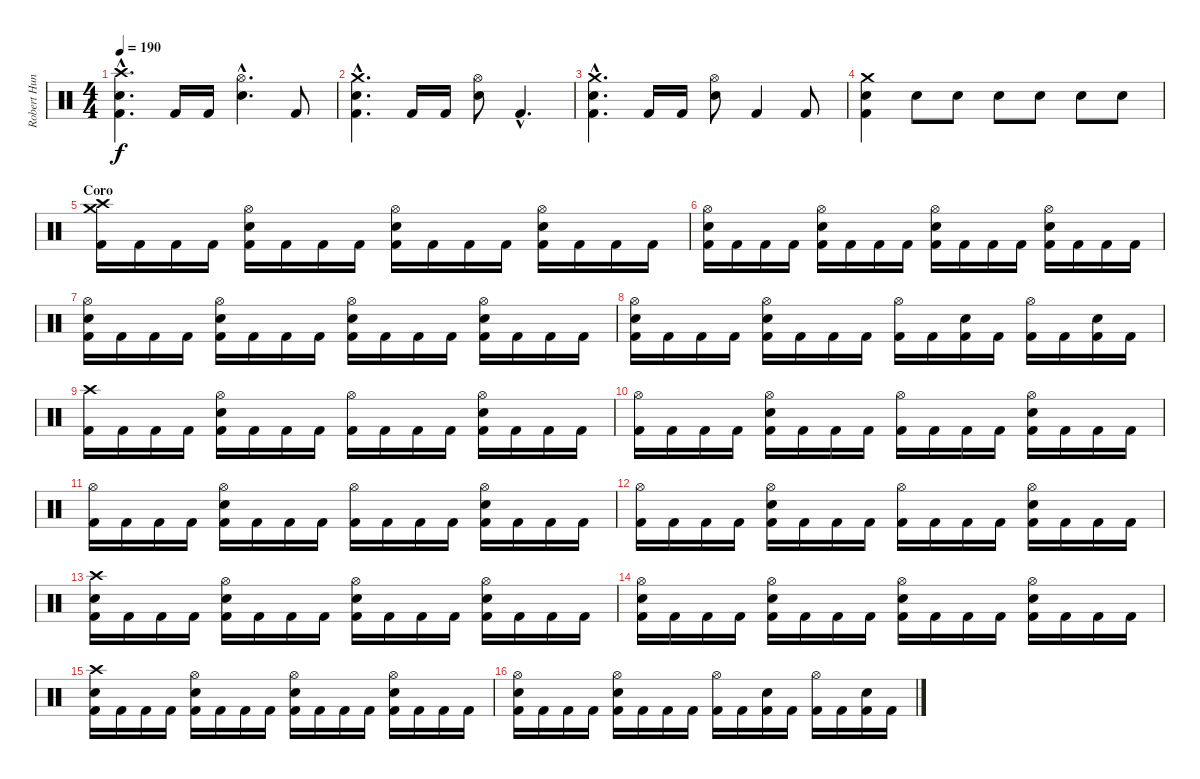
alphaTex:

\track ("Robert Hunecke" "Robert Hun") {instrument percussion}
\staff {score}
\articulation defaults
\ts (4 4)
\tempo 190
\clef neutral
\ks c
("Kick (hit) 2"{hac} "Electric Snare (hit)"{hac} "Crash high (hit)"{hac}).4{d dy f} "Kick (hit) 2".16 "Kick (hit) 2".16 ("Electric Snare (hit)"{hac} "Hi-Hat (open)"{hac}).4{d} "Kick (hit) 2".8 |
("Kick (hit) 2"{hac} "Electric Snare (hit)"{hac} "Crash medium (hit)"{hac}).4{d} "Kick (hit) 2".16 "Kick (hit) 2".16 ("Electric Snare (hit)" "Hi-Hat (open)").8 "Kick (hit) 2"{hac}.4{d} |
("Kick (hit) 2"{hac} "Electric Snare (hit)"{hac} "Crash medium (hit)"{hac}).4{d} "Kick (hit) 2".16 "Kick (hit) 2".16 ("Electric Snare (hit)" "Hi-Hat (open)").8 "Kick (hit) 2".4 "Kick (hit) 2".8 |
("Kick (hit) 2" "Electric Snare (hit)" "Crash medium (hit)").4 "Electric Snare (hit)".8 "Electric Snare (hit)".8 "Electric Snare (hit)".8 "Electric Snare (hit)".8 "Electric Snare (hit)".8 "Electric Snare (hit)".8 |
\section ("" "Coro")
("Kick (hit) 2" "Crash high (hit)" "Crash medium (hit)").16 "Kick (hit) 2".16 "Kick (hit) 2".16 "Kick (hit) 2".16 ("Kick (hit) 2" "Electric Snare (hit)" "Hi-Hat (open)").16 "Kick (hit) 2".16 "Kick (hit) 2".16 "Kick (hit) 2".16 ("Kick (hit) 2" "Electric Snare (hit)" "Hi-Hat (open)").16 "Kick (hit) 2".16 "Kick (hit) 2".16 "Kick (hit) 2".16 ("Kick (hit) 2" "Electric Snare (hit)" "Hi-Hat (open)").16 "Kick (hit) 2".16 "Kick (hit) 2".16 "Kick (hit) 2".16 |
("Kick (hit) 2" "Electric Snare (hit)" "Hi-Hat (open)").16 "Kick (hit) 2".16 "Kick (hit) 2".16 "Kick (hit) 2".16 ("Kick (hit) 2" "Electric Snare (hit)" "Hi-Hat (open)").16 "Kick (hit) 2".16 "Kick (hit) 2".16 "Kick (hit) 2".16 ("Kick (hit) 2" "Electric Snare (hit)" "Hi-Hat (open)").16 "Kick (hit) 2".16 "Kick (hit) 2".16 "Kick (hit) 2".16 ("Kick (hit) 2" "Electric Snare (hit)" "Hi-Hat (open)").16 "Kick (hit) 2".16 "Kick (hit) 2".16 "Kick (hit) 2".16 |
("Kick (hit) 2" "Electric Snare (hit)" "Hi-Hat (open)").16 "Kick (hit) 2".16 "Kick (hit) 2".16 "Kick (hit) 2".16 ("Kick (hit) 2" "Electric Snare (hit)" "Hi-Hat (open)").16 "Kick (hit) 2".16 "Kick (hit) 2".16 "Kick (hit) 2".16 ("Kick (hit) 2" "Electric Snare (hit)" "Hi-Hat (open)").16 "Kick (hit) 2".16 "Kick (hit) 2".16 "Kick (hit) 2".16 ("Kick (hit) 2" "Electric Snare (hit)" "Hi-Hat (open)").16 "Kick (hit) 2".16 "Kick (hit) 2".16 "Kick (hit) 2".16 |
("Kick (hit) 2" "Electric Snare (hit)" "Hi-Hat (open)").16 "Kick (hit) 2".16 "Kick (hit) 2".16 "Kick (hit) 2".16 ("Kick (hit) 2" "Electric Snare (hit)" "Hi-Hat (open)").16 "Kick (hit) 2".16 "Kick (hit) 2".16 "Kick (hit) 2".16 ("Kick (hit) 2" "Hi-Hat (open)").16 "Kick (hit) 2".16 ("Kick (hit) 2" "Electric Snare (hit)").16 "Kick (hit) 2".16 ("Kick (hit) 2" "Hi-Hat (open)").16 "Kick (hit) 2".16 ("Kick (hit) 2" "Electric Snare (hit)").16 "Kick (hit) 2".16 |
("Kick (hit) 2" "Crash high (hit)").16 "Kick (hit) 2".16 "Kick (hit) 2".16 "Kick (hit) 2".16 ("Kick (hit) 2" "Electric Snare (hit)" "Hi-Hat (open)").16 "Kick (hit) 2".16 "Kick (hit) 2".16 "Kick (hit) 2".16 ("Kick (hit) 2" "Hi-Hat (open)").16 "Kick (hit) 2".16 "Kick (hit) 2".16 "Kick (hit) 2".16 ("Kick (hit) 2" "Electric Snare (hit)" "Hi-Hat (open)").16 "Kick (hit) 2".16 "Kick (hit) 2".16 "Kick (hit) 2".16 |
("Kick (hit) 2" "Hi-Hat (open)").16 "Kick (hit) 2".16 "Kick (hit) 2".16 "Kick (hit) 2".16 ("Kick (hit) 2" "Electric Snare (hit)" "Hi-Hat (open)").16 "Kick (hit) 2".16 "Kick (hit) 2".16 "Kick (hit) 2".16 ("Kick (hit) 2" "Hi-Hat (open)").16 "Kick (hit) 2".16 "Kick (hit) 2".16 "Kick (hit) 2".16 ("Kick (hit) 2" "Electric Snare (hit)" "Hi-Hat (open)").16 "Kick (hit) 2".16 "Kick (hit) 2".16 "Kick (hit) 2".16 |
("Kick (hit) 2" "Hi-Hat (open)").16 "Kick (hit) 2".16 "Kick (hit) 2".16 "Kick (hit) 2".16 ("Kick (hit) 2" "Electric Snare (hit)" "Hi-Hat (open)").16 "Kick (hit) 2".16 "Kick (hit) 2".16 "Kick (hit) 2".16 ("Kick (hit) 2" "Hi-Hat (open)").16 "Kick (hit) 2".16 "Kick (hit) 2".16 "Kick (hit) 2".16 ("Kick (hit) 2" "Electric Snare (hit)" "Hi-Hat (open)").16 "Kick (hit) 2".16 "Kick (hit) 2".16 "Kick (hit) 2".16 |
("Kick (hit) 2" "Hi-Hat (open)").16 "Kick (hit) 2".16 "Kick (hit) 2".16 "Kick (hit) 2".16 ("Kick (hit) 2" "Electric Snare (hit)" "Hi-Hat (open)").16 "Kick (hit) 2".16 "Kick (hit) 2".16 "Kick (hit) 2".16 ("Kick (hit) 2" "Hi-Hat (open)").16 "Kick (hit) 2".16 "Kick (hit) 2".16 "Kick (hit) 2".16 ("Kick (hit) 2" "Electric Snare (hit)" "Hi-Hat (open)").16 "Kick (hit) 2".16 "Kick (hit) 2".16 "Kick (hit) 2".16 |
("Kick (hit) 2" "Electric Snare (hit)" "Crash high (hit)").16 "Kick (hit) 2".16 "Kick (hit) 2".16 "Kick (hit) 2".16 ("Kick (hit) 2" "Electric Snare (hit)" "Hi-Hat (open)").16 "Kick (hit) 2".16 "Kick (hit) 2".16 "Kick (hit) 2".16 ("Kick (hit) 2" "Electric Snare (hit)" "Hi-Hat (open)").16 "Kick (hit) 2".16 "Kick (hit) 2".16 "Kick (hit) 2".16 ("Kick (hit) 2" "Electric Snare (hit)" "Hi-Hat (open)").16 "Kick (hit) 2".16 "Kick (hit) 2".16 "Kick (hit) 2".16 |
("Kick (hit) 2" "Electric Snare (hit)" "Hi-Hat (open)").16 "Kick (hit) 2".16 "Kick (hit) 2".16 "Kick (hit) 2".16 ("Kick (hit) 2" "Electric Snare (hit)" "Hi-Hat (open)").16 "Kick (hit) 2".16 "Kick (hit) 2".16 "Kick (hit) 2".16 ("Kick (hit) 2" "Electric Snare (hit)" "Hi-Hat (open)").16 "Kick (hit) 2".16 "Kick (hit) 2".16 "Kick (hit) 2".16 ("Kick (hit) 2" "Electric Snare (hit)" "Hi-Hat (open)").16 "Kick (hit) 2".16 "Kick (hit) 2".16 "Kick (hit) 2".16 |
("Kick (hit) 2" "Electric Snare (hit)" "Crash high (hit)").16 "Kick (hit) 2".16 "Kick (hit) 2".16 "Kick (hit) 2".16 ("Kick (hit) 2" "Electric Snare (hit)" "Hi-Hat (open)").16 "Kick (hit) 2".16 "Kick (hit) 2".16 "Kick (hit) 2".16 ("Kick (hit) 2" "Electric Snare (hit)" "Hi-Hat (open)").16 "Kick (hit) 2".16 "Kick (hit) 2".16 "Kick (hit) 2".16 ("Kick (hit) 2" "Electric Snare (hit)" "Hi-Hat (open)").16 "Kick (hit) 2".16 "Kick (hit) 2".16 "Kick (hit) 2".16 |
("Kick (hit) 2" "Electric Snare (hit)" "Hi-Hat (open)").16 "Kick (hit) 2".16 "Kick (hit) 2".16 "Kick (hit) 2".16 ("Kick (hit) 2" "Electric Snare (hit)" "Hi-Hat (open)").16 "Kick (hit) 2".16 "Kick (hit) 2".16 "Kick (hit) 2".16 ("Kick (hit) 2" "Hi-Hat (open)").16 "Kick (hit) 2".16 ("Kick (hit) 2" "Electric Snare (hit)").16 "Kick (hit) 2".16 ("Kick (hit) 2" "Hi-Hat (open)").16 "Kick (hit) 2".16 ("Kick (hit) 2" "Electric Snare (hit)").16 "Kick (hit) 2".16
